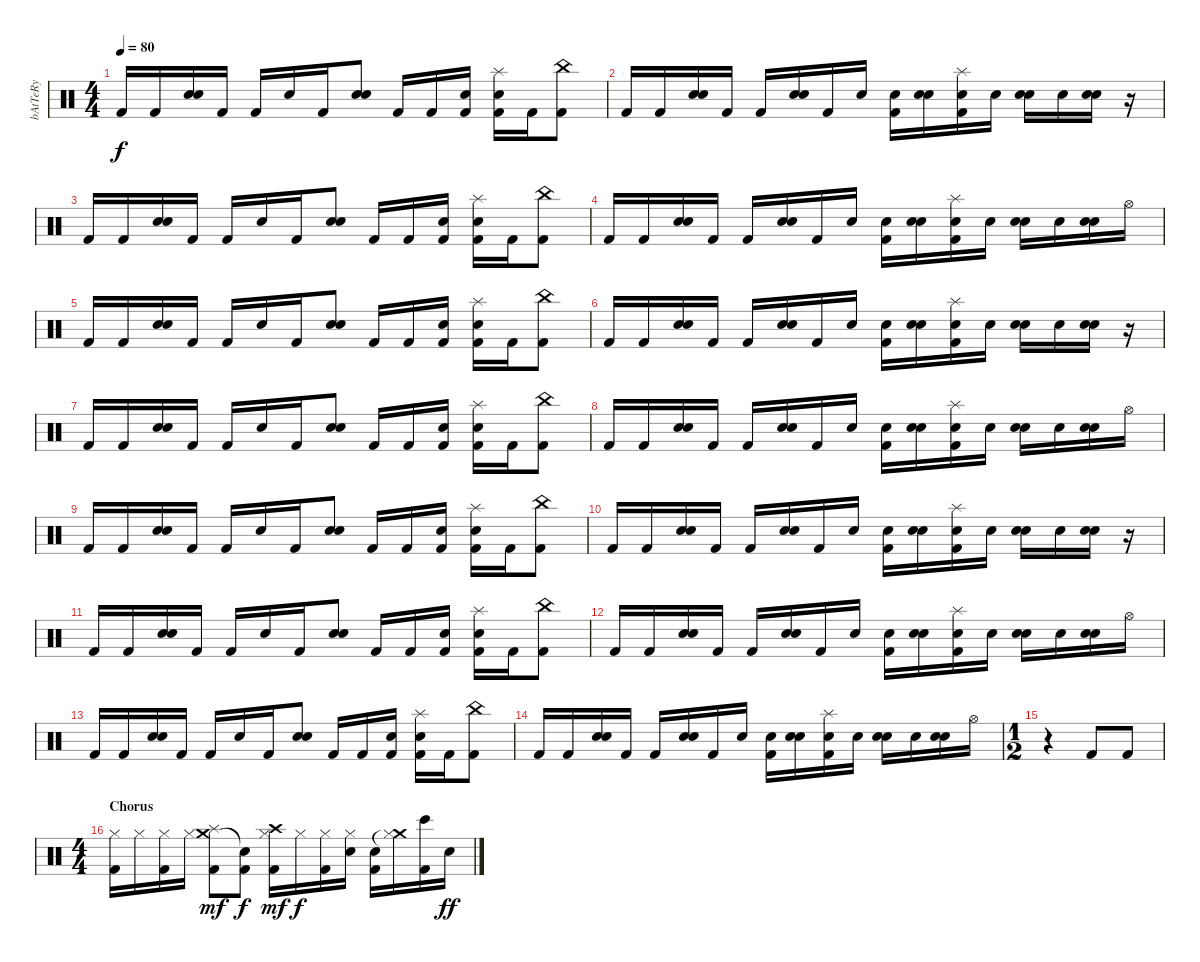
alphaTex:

\track ("bAtTeRy" "bAtTeRy") {instrument percussion}
\staff {score}
\articulation defaults
\ts (4 4)
\tempo 80
\clef neutral
\ks c "Kick (hit) 2".16{dy f} "Kick (hit) 2".16
("Snare (hit) 2" "Electric Snare (hit)").16 "Kick (hit) 2".16 "Kick (hit) 2".16 "Electric Snare (hit)".16 "Kick (hit) 2".16 ("Snare (hit) 2" "Electric Snare (hit)").8 "Kick (hit) 2".16 "Kick (hit) 2".16 ("Snare (hit) 2" "Kick (hit) 2").16 ("Splash (hit)" "Snare (hit) 2" "Kick (hit) 2").16 "Kick (hit) 2".16 ("China (hit)" "Kick (hit) 2").8 |
"Kick (hit) 2".16 "Kick (hit) 2".16 ("Snare (hit) 2" "Electric Snare (hit)").16 "Kick (hit) 2".16 "Kick (hit) 2".16 ("Snare (hit) 2" "Electric Snare (hit)").16 "Kick (hit) 2".16 "Electric Snare (hit)".16 ("Snare (hit) 2" "Kick (hit) 2").16 ("Snare (hit) 2" "Electric Snare (hit)").16 ("Splash (hit)" "Snare (hit) 2" "Kick (hit) 2").16 "Electric Snare (hit)".16 ("Snare (hit) 2" "Electric Snare (hit)").16 "Electric Snare (hit)".16 ("Snare (hit) 2" "Electric Snare (hit)").16 r.16 |
"Kick (hit) 2".16 "Kick (hit) 2".16 ("Snare (hit) 2" "Electric Snare (hit)").16 "Kick (hit) 2".16 "Kick (hit) 2".16 "Electric Snare (hit)".16 "Kick (hit) 2".16 ("Snare (hit) 2" "Electric Snare (hit)").8 "Kick (hit) 2".16 "Kick (hit) 2".16 ("Snare (hit) 2" "Kick (hit) 2").16 ("Splash (hit)" "Snare (hit) 2" "Kick (hit) 2").16 "Kick (hit) 2".16 ("China (hit)" "Kick (hit) 2").8 |
"Kick (hit) 2".16 "Kick (hit) 2".16 ("Snare (hit) 2" "Electric Snare (hit)").16 "Kick (hit) 2".16 "Kick (hit) 2".16 ("Snare (hit) 2" "Electric Snare (hit)").16 "Kick (hit) 2".16 "Electric Snare (hit)".16 ("Snare (hit) 2" "Kick (hit) 2").16 ("Snare (hit) 2" "Electric Snare (hit)").16 ("Splash (hit)" "Snare (hit) 2" "Kick (hit) 2").16 "Electric Snare (hit)".16 ("Snare (hit) 2" "Electric Snare (hit)").16 "Electric Snare (hit)".16 ("Snare (hit) 2" "Electric Snare (hit)").16 "Hi-Hat (open)".16 |
"Kick (hit) 2".16 "Kick (hit) 2".16 ("Snare (hit) 2" "Electric Snare (hit)").16 "Kick (hit) 2".16 "Kick (hit) 2".16 "Electric Snare (hit)".16 "Kick (hit) 2".16 ("Snare (hit) 2" "Electric Snare (hit)").8 "Kick (hit) 2".16 "Kick (hit) 2".16 ("Snare (hit) 2" "Kick (hit) 2").16 ("Splash (hit)" "Snare (hit) 2" "Kick (hit) 2").16 "Kick (hit) 2".16 ("China (hit)" "Kick (hit) 2").8 |
"Kick (hit) 2".16 "Kick (hit) 2".16 ("Snare (hit) 2" "Electric Snare (hit)").16 "Kick (hit) 2".16 "Kick (hit) 2".16 ("Snare (hit) 2" "Electric Snare (hit)").16 "Kick (hit) 2".16 "Electric Snare (hit)".16 ("Snare (hit) 2" "Kick (hit) 2").16 ("Snare (hit) 2" "Electric Snare (hit)").16 ("Splash (hit)" "Snare (hit) 2" "Kick (hit) 2").16 "Electric Snare (hit)".16 ("Snare (hit) 2" "Electric Snare (hit)").16 "Electric Snare (hit)".16 ("Snare (hit) 2" "Electric Snare (hit)").16 r.16 |
"Kick (hit) 2".16 "Kick (hit) 2".16 ("Snare (hit) 2" "Electric Snare (hit)").16 "Kick (hit) 2".16 "Kick (hit) 2".16 "Electric Snare (hit)".16 "Kick (hit) 2".16 ("Snare (hit) 2" "Electric Snare (hit)").8 "Kick (hit) 2".16 "Kick (hit) 2".16 ("Snare (hit) 2" "Kick (hit) 2").16 ("Splash (hit)" "Snare (hit) 2" "Kick (hit) 2").16 "Kick (hit) 2".16 ("China (hit)" "Kick (hit) 2").8 |
"Kick (hit) 2".16 "Kick (hit) 2".16 ("Snare (hit) 2" "Electric Snare (hit)").16 "Kick (hit) 2".16 "Kick (hit) 2".16 ("Snare (hit) 2" "Electric Snare (hit)").16 "Kick (hit) 2".16 "Electric Snare (hit)".16 ("Snare (hit) 2" "Kick (hit) 2").16 ("Snare (hit) 2" "Electric Snare (hit)").16 ("Splash (hit)" "Snare (hit) 2" "Kick (hit) 2").16 "Electric Snare (hit)".16 ("Snare (hit) 2" "Electric Snare (hit)").16 "Electric Snare (hit)".16 ("Snare (hit) 2" "Electric Snare (hit)").16 "Hi-Hat (open)".16 |
"Kick (hit) 2".16 "Kick (hit) 2".16 ("Snare (hit) 2" "Electric Snare (hit)").16 "Kick (hit) 2".16 "Kick (hit) 2".16 "Electric Snare (hit)".16 "Kick (hit) 2".16 ("Snare (hit) 2" "Electric Snare (hit)").8 "Kick (hit) 2".16 "Kick (hit) 2".16 ("Snare (hit) 2" "Kick (hit) 2").16 ("Splash (hit)" "Snare (hit) 2" "Kick (hit) 2").16 "Kick (hit) 2".16 ("China (hit)" "Kick (hit) 2").8 |
"Kick (hit) 2".16 "Kick (hit) 2".16 ("Snare (hit) 2" "Electric Snare (hit)").16 "Kick (hit) 2".16 "Kick (hit) 2".16 ("Snare (hit) 2" "Electric Snare (hit)").16 "Kick (hit) 2".16 "Electric Snare (hit)".16 ("Snare (hit) 2" "Kick (hit) 2").16 ("Snare (hit) 2" "Electric Snare (hit)").16 ("Splash (hit)" "Snare (hit) 2" "Kick (hit) 2").16 "Electric Snare (hit)".16 ("Snare (hit) 2" "Electric Snare (hit)").16 "Electric Snare (hit)".16 ("Snare (hit) 2" "Electric Snare (hit)").16 r.16 |
"Kick (hit) 2".16 "Kick (hit) 2".16 ("Snare (hit) 2" "Electric Snare (hit)").16 "Kick (hit) 2".16 "Kick (hit) 2".16 "Electric Snare (hit)".16 "Kick (hit) 2".16 ("Snare (hit) 2" "Electric Snare (hit)").8 "Kick (hit) 2".16 "Kick (hit) 2".16 ("Snare (hit) 2" "Kick (hit) 2").16 ("Splash (hit)" "Snare (hit) 2" "Kick (hit) 2").16 "Kick (hit) 2".16 ("China (hit)" "Kick (hit) 2").8 |
"Kick (hit) 2".16 "Kick (hit) 2".16 ("Snare (hit) 2" "Electric Snare (hit)").16 "Kick (hit) 2".16 "Kick (hit) 2".16 ("Snare (hit) 2" "Electric Snare (hit)").16 "Kick (hit) 2".16 "Electric Snare (hit)".16 ("Snare (hit) 2" "Kick (hit) 2").16 ("Snare (hit) 2" "Electric Snare (hit)").16 ("Splash (hit)" "Snare (hit) 2" "Kick (hit) 2").16 "Electric Snare (hit)".16 ("Snare (hit) 2" "Electric Snare (hit)").16 "Electric Snare (hit)".16 ("Snare (hit) 2" "Electric Snare (hit)").16 "Hi-Hat (open)".16 |
"Kick (hit) 2".16 "Kick (hit) 2".16 ("Snare (hit) 2" "Electric Snare (hit)").16 "Kick (hit) 2".16 "Kick (hit) 2".16 "Electric Snare (hit)".16 "Kick (hit) 2".16 ("Snare (hit) 2" "Electric Snare (hit)").8 "Kick (hit) 2".16 "Kick (hit) 2".16 ("Snare (hit) 2" "Kick (hit) 2").16 ("Splash (hit)" "Snare (hit) 2" "Kick (hit) 2").16 "Kick (hit) 2".16 ("China (hit)" "Kick (hit) 2").8 |
"Kick (hit) 2".16 "Kick (hit) 2".16 ("Snare (hit) 2" "Electric Snare (hit)").16 "Kick (hit) 2".16 "Kick (hit) 2".16 ("Snare (hit) 2" "Electric Snare (hit)").16 "Kick (hit) 2".16 "Electric Snare (hit)".16 ("Snare (hit) 2" "Kick (hit) 2").16 ("Snare (hit) 2" "Electric Snare (hit)").16 ("Splash (hit)" "Snare (hit) 2" "Kick (hit) 2").16 "Electric Snare (hit)".16 ("Snare (hit) 2" "Electric Snare (hit)").16 "Electric Snare (hit)".16 ("Snare (hit) 2" "Electric Snare (hit)").16 "Hi-Hat (open)".16 |
\ts (1 2)
r.4 "Kick (hit) 2".8 "Kick (hit) 2".8 |
\ts (4 4)
\section ("" "Chorus")
("Hi-Hat (closed)" "Kick (hit) 2").16 "Hi-Hat (closed)".16 ("Hi-Hat (closed)" "Kick (hit) 2").16 "Hi-Hat (closed)".16 ("Crash medium (hit)" "Splash (hit)" "Kick (hit) 2").8{dy mf} ("Snare (hit)"{t} "Kick (hit) 2").8{dy f} ("Crash high (hit)" "Hi-Hat (closed)" "Kick (hit) 2").16{dy mf} "Hi-Hat (closed)".16{dy f} ("Hi-Hat (closed)" "Kick (hit) 2").16 ("Snare (hit) 2" "Hi-Hat (closed)").16 ("Snare (hit) 2" "Kick (hit) 2").16 ("Crash medium (hit)"{t} "Hi-Hat (closed)").16 ("Bongo High (hit)" "Kick (hit) 2").16 "Electric Snare (hit)".16{dy ff}
